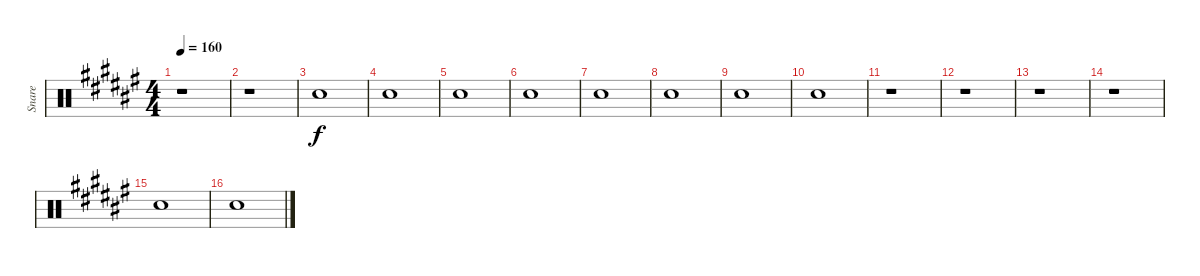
\track ("Snare" "Snare") {instrument percussion}
\staff {score}
\articulation defaults
\ts (4 4)
\tempo 160
\clef neutral
\ks d#minor
r.1{dy f} |
r.1 |
"Electric Snare (hit)".1 |
"Electric Snare (hit)".1 |
"Electric Snare (hit)".1 |
"Electric Snare (hit)".1 |
"Electric Snare (hit)".1 |
"Electric Snare (hit)".1 |
"Electric Snare (hit)".1 |
"Electric Snare (hit)".1 |
r.1 |
r.1 |
r.1 |
r.1 |
"Electric Snare (hit)".1 |
"Electric Snare (hit)".1
